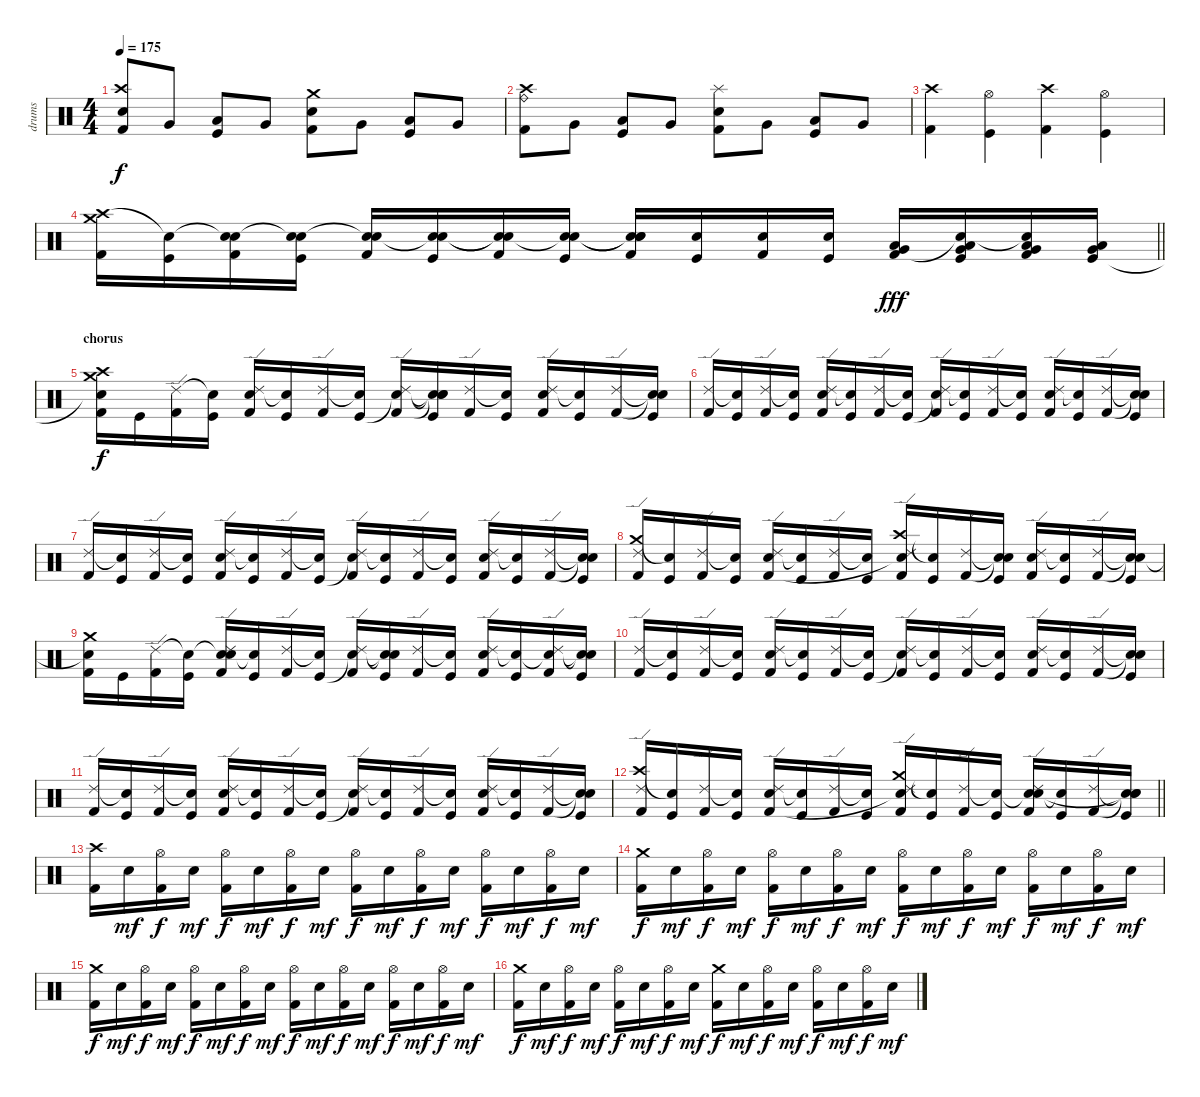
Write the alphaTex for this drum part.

\track ("drums" "drums") {instrument percussion}
\staff {score}
\articulation defaults
\ts (4 4)
\tempo 175
\clef neutral
\ks c
("Kick (hit) 2" "Crash high (hit)" "Snare (hit) 2").8{dy f} "Very Low Tom (hit)".8 ("Kick (hit)" "Low Tom (hit)").8 "Very Low Tom (hit)".8 ("Kick (hit) 2" "Snare (hit) 2" "Crash medium (hit)").8 "Very Low Tom (hit)".8 ("Kick (hit)" "Low Tom (hit)").8 "Very Low Tom (hit)".8 |
("Kick (hit) 2" "Ride (bell)" "Crash high (hit)").8 "Very Low Tom (hit)".8 ("Kick (hit)" "Low Tom (hit)").8 "Very Low Tom (hit)".8 ("Kick (hit) 2" "Snare (hit) 2" "Splash (hit)").8 "Very Low Tom (hit)".8 ("Kick (hit)" "Low Tom (hit)").8 "Very Low Tom (hit)".8 |
("Crash high (hit)" "Kick (hit) 2").4 ("Hi-Hat (open)" "Kick (hit)").4 ("Crash high (hit)" "Kick (hit) 2").4 ("Hi-Hat (open)" "Kick (hit)").4 |
\barLineRight lightlight
("Crash high (hit)" "Crash medium (hit)" "Kick (hit) 2").16 ("Snare (hit)"{t} "Kick (hit)").16 ("Snare (hit)"{t} "Electric Snare (hit)" "Kick (hit) 2").16 ("Snare (hit)"{t} "Electric Snare (hit)" "Kick (hit)").16 ("Snare (hit)"{t} "Electric Snare (hit)" "Kick (hit) 2").16 ("Snare (hit)"{t} "Electric Snare (hit)" "Kick (hit)").16 ("Snare (hit)"{t} "Snare (hit)"{t} "Kick (hit) 2").16 ("Snare (hit)"{t} "Electric Snare (hit)" "Kick (hit)").16 ("Snare (hit)"{t} "Snare (hit)"{t} "Electric Snare (hit)" "Kick (hit) 2").16 ("Electric Snare (hit)" "Kick (hit)").16 ("Electric Snare (hit)" "Kick (hit) 2").16 ("Electric Snare (hit)" "Kick (hit)").16 ("Very Low Tom (hit)" "Low Tom (hit)" "Kick (hit) 2").16{dy fff} ("Very Low Tom (hit)" "Low Tom (hit)" "Snare (hit)"{t} "Kick (hit)").16 ("Low Floor Tom (hit)" "Very Low Tom (hit)" "Snare (hit)"{t} "Kick (hit) 2").16 ("Low Floor Tom (hit)" "Very Low Tom (hit)" "Kick (hit)").16 |
\section ("" "chorus")
("Crash high (hit)" "Crash medium (hit)" "Snare (hit)"{t} "Kick (hit) 2").16{dy f} "Kick (hit)".16 ("Ride (edge) 2" "Kick (hit) 2").16 ("Snare (hit)"{t} "Kick (hit)").16 ("Ride (edge) 2" "Snare (hit) 2" "Kick (hit) 2").16 ("Snare (hit)"{t} "Kick (hit)").16 ("Ride (edge) 2" "Kick (hit) 2").16 ("Snare (hit)"{t} "Kick (hit)").16 ("Ride (edge) 2" "Snare (hit)"{t} "Kick (hit) 2").16 ("Snare (hit)"{t} "Snare (hit)"{t} "Snare (hit)"{t} "Kick (hit)").16 ("Ride (edge) 2" "Kick (hit) 2").16 ("Snare (hit)"{t} "Kick (hit)").16 ("Ride (edge) 2" "Snare (hit) 2" "Kick (hit) 2").16 ("Snare (hit)"{t} "Kick (hit)").16 ("Ride (edge) 2" "Kick (hit) 2").16 ("Snare (hit)"{t} "Snare (hit)"{t} "Kick (hit)").16 |
("Ride (edge) 2" "Kick (hit) 2").16 ("Snare (hit)"{t} "Kick (hit)").16 ("Ride (edge) 2" "Kick (hit) 2").16 ("Snare (hit)"{t} "Kick (hit)").16 ("Ride (edge) 2" "Snare (hit) 2" "Kick (hit) 2").16 ("Snare (hit)"{t} "Kick (hit)").16 ("Ride (edge) 2" "Kick (hit) 2").16 ("Snare (hit)"{t} "Kick (hit)").16 ("Ride (edge) 2" "Snare (hit)"{t} "Kick (hit) 2").16 ("Snare (hit)"{t} "Kick (hit)").16 ("Ride (edge) 2" "Kick (hit) 2").16 ("Snare (hit)"{t} "Kick (hit)").16 ("Ride (edge) 2" "Snare (hit) 2" "Kick (hit) 2").16 ("Snare (hit)"{t} "Kick (hit)").16 ("Ride (edge) 2" "Kick (hit) 2").16 ("Snare (hit)"{t} "Snare (hit)"{t} "Kick (hit)").16 |
("Ride (edge) 2" "Kick (hit) 2").16 ("Snare (hit)"{t} "Kick (hit)").16 ("Ride (edge) 2" "Kick (hit) 2").16 ("Snare (hit)"{t} "Kick (hit)").16 ("Ride (edge) 2" "Snare (hit) 2" "Kick (hit) 2").16 ("Snare (hit)"{t} "Kick (hit)").16 ("Ride (edge) 2" "Kick (hit) 2").16 ("Snare (hit)"{t} "Kick (hit)").16 ("Ride (edge) 2" "Snare (hit)"{t} "Kick (hit) 2").16 ("Snare (hit)"{t} "Kick (hit)").16 ("Ride (edge) 2" "Kick (hit) 2").16 ("Snare (hit)"{t} "Kick (hit)").16 ("Ride (edge) 2" "Snare (hit) 2" "Kick (hit) 2").16 ("Snare (hit)"{t} "Kick (hit)").16 ("Ride (edge) 2" "Kick (hit) 2").16 ("Snare (hit)"{t} "Snare (hit)"{t} "Kick (hit)").16 |
("Crash medium (hit)" "Ride (edge) 2" "Kick (hit) 2").16 ("Snare (hit)"{t} "Kick (hit)").16 ("Ride (edge) 2" "Kick (hit) 2").16 ("Snare (hit)"{t} "Kick (hit)").16 ("Ride (edge) 2" "Snare (hit) 2" "Kick (hit) 2").16 ("Snare (hit)"{t} "Kick (hit)").16 ("Ride (edge) 2" "Kick (hit) 2").16 ("Snare (hit)"{t} "Kick (hit)").16 ("Crash high (hit)" "Ride (edge) 2" "Snare (hit)"{t} "Kick (hit) 2").16 ("Snare (hit)"{t} "Kick (hit)").16 ("Ride (edge) 2" "Kick (hit) 2").16 ("Snare (hit)"{t} "Snare (hit)"{t} "Kick (hit)").16 ("Ride (edge) 2" "Snare (hit) 2" "Kick (hit) 2").16 ("Snare (hit)"{t} "Kick (hit)").16 ("Ride (edge) 2" "Kick (hit) 2").16 ("Snare (hit)"{t} "Snare (hit)"{t} "Kick (hit)").16 |
("Crash medium (hit)" "Snare (hit)"{t} "Kick (hit) 2").16 "Kick (hit)".16 ("Ride (edge) 2" "Kick (hit) 2").16 ("Snare (hit)"{t} "Kick (hit)").16 ("Snare (hit)"{t} "Ride (edge) 2" "Snare (hit) 2" "Kick (hit) 2").16 ("Snare (hit)"{t} "Kick (hit)").16 ("Ride (edge) 2" "Kick (hit) 2").16 ("Snare (hit)"{t} "Kick (hit)").16 ("Ride (edge) 2" "Snare (hit)"{t} "Kick (hit) 2").16 ("Snare (hit)"{t} "Snare (hit)"{t} "Kick (hit)").16 ("Ride (edge) 2" "Kick (hit) 2").16 ("Snare (hit)"{t} "Kick (hit)").16 ("Ride (edge) 2" "Snare (hit) 2" "Kick (hit) 2").16 ("Snare (hit)"{t} "Kick (hit)").16 ("Snare (hit)"{t} "Ride (edge) 2" "Kick (hit) 2").16 ("Snare (hit)"{t} "Snare (hit)"{t} "Kick (hit)").16 |
("Ride (edge) 2" "Kick (hit) 2").16 ("Snare (hit)"{t} "Kick (hit)").16 ("Ride (edge) 2" "Kick (hit) 2").16 ("Snare (hit)"{t} "Kick (hit)").16 ("Ride (edge) 2" "Snare (hit) 2" "Kick (hit) 2").16 ("Snare (hit)"{t} "Kick (hit)").16 ("Ride (edge) 2" "Kick (hit) 2").16 ("Snare (hit)"{t} "Kick (hit)").16 ("Ride (edge) 2" "Snare (hit)"{t} "Kick (hit) 2").16 ("Snare (hit)"{t} "Kick (hit)").16 ("Ride (edge) 2" "Kick (hit) 2").16 ("Snare (hit)"{t} "Kick (hit)").16 ("Ride (edge) 2" "Snare (hit) 2" "Kick (hit) 2").16 ("Snare (hit)"{t} "Kick (hit)").16 ("Ride (edge) 2" "Kick (hit) 2").16 ("Snare (hit)"{t} "Snare (hit)"{t} "Kick (hit)").16 |
("Ride (edge) 2" "Kick (hit) 2").16 ("Snare (hit)"{t} "Kick (hit)").16 ("Ride (edge) 2" "Kick (hit) 2").16 ("Snare (hit)"{t} "Kick (hit)").16 ("Ride (edge) 2" "Snare (hit) 2" "Kick (hit) 2").16 ("Snare (hit)"{t} "Kick (hit)").16 ("Ride (edge) 2" "Kick (hit) 2").16 ("Snare (hit)"{t} "Kick (hit)").16 ("Ride (edge) 2" "Snare (hit)"{t} "Kick (hit) 2").16 ("Snare (hit)"{t} "Kick (hit)").16 ("Ride (edge) 2" "Kick (hit) 2").16 ("Snare (hit)"{t} "Kick (hit)").16 ("Ride (edge) 2" "Snare (hit) 2" "Kick (hit) 2").16 ("Snare (hit)"{t} "Kick (hit)").16 ("Ride (edge) 2" "Kick (hit) 2").16 ("Snare (hit)"{t} "Snare (hit)"{t} "Kick (hit)").16 |
\barLineRight lightlight
("Crash high (hit)" "Ride (edge) 2" "Kick (hit) 2").16 ("Snare (hit)"{t} "Kick (hit)").16 ("Ride (edge) 2" "Kick (hit) 2").16 ("Snare (hit)"{t} "Kick (hit)").16 ("Ride (edge) 2" "Snare (hit) 2" "Kick (hit) 2").16 ("Snare (hit)"{t} "Kick (hit)").16 ("Ride (edge) 2" "Kick (hit) 2").16 ("Snare (hit)"{t} "Kick (hit)").16 ("Crash medium (hit)" "Ride (edge) 2" "Snare (hit)"{t} "Kick (hit) 2").16 ("Snare (hit)"{t} "Kick (hit)").16 ("Ride (edge) 2" "Kick (hit) 2").16 ("Snare (hit)"{t} "Kick (hit)").16 ("Snare (hit)"{t} "Ride (edge) 2" "Snare (hit) 2" "Kick (hit) 2").16 ("Snare (hit)"{t} "Kick (hit)").16 ("Ride (edge) 2" "Kick (hit) 2").16 ("Snare (hit)"{t} "Snare (hit)"{t} "Snare (hit)"{t} "Kick (hit)").16 |
("Crash high (hit)" "Kick (hit) 2").16 "Electric Snare (hit)".16{dy mf} ("Hi-Hat (open)" "Kick (hit) 2").16{dy f} "Electric Snare (hit)".16{dy mf} ("Hi-Hat (open)" "Kick (hit) 2").16{dy f} "Electric Snare (hit)".16{dy mf} ("Hi-Hat (open)" "Kick (hit) 2").16{dy f} "Electric Snare (hit)".16{dy mf} ("Hi-Hat (open)" "Kick (hit) 2").16{dy f} "Electric Snare (hit)".16{dy mf} ("Hi-Hat (open)" "Kick (hit) 2").16{dy f} "Electric Snare (hit)".16{dy mf} ("Hi-Hat (open)" "Kick (hit) 2").16{dy f} "Electric Snare (hit)".16{dy mf} ("Hi-Hat (open)" "Kick (hit) 2").16{dy f} "Electric Snare (hit)".16{dy mf} |
("Crash medium (hit)" "Kick (hit) 2").16{dy f} "Electric Snare (hit)".16{dy mf} ("Hi-Hat (open)" "Kick (hit) 2").16{dy f} "Electric Snare (hit)".16{dy mf} ("Hi-Hat (open)" "Kick (hit) 2").16{dy f} "Electric Snare (hit)".16{dy mf} ("Hi-Hat (open)" "Kick (hit) 2").16{dy f} "Electric Snare (hit)".16{dy mf} ("Hi-Hat (open)" "Kick (hit) 2").16{dy f} "Electric Snare (hit)".16{dy mf} ("Hi-Hat (open)" "Kick (hit) 2").16{dy f} "Electric Snare (hit)".16{dy mf} ("Hi-Hat (open)" "Kick (hit) 2").16{dy f} "Electric Snare (hit)".16{dy mf} ("Hi-Hat (open)" "Kick (hit) 2").16{dy f} "Electric Snare (hit)".16{dy mf} |
("Crash medium (hit)" "Kick (hit) 2").16{dy f} "Electric Snare (hit)".16{dy mf} ("Hi-Hat (open)" "Kick (hit) 2").16{dy f} "Electric Snare (hit)".16{dy mf} ("Hi-Hat (open)" "Kick (hit) 2").16{dy f} "Electric Snare (hit)".16{dy mf} ("Hi-Hat (open)" "Kick (hit) 2").16{dy f} "Electric Snare (hit)".16{dy mf} ("Hi-Hat (open)" "Kick (hit) 2").16{dy f} "Electric Snare (hit)".16{dy mf} ("Hi-Hat (open)" "Kick (hit) 2").16{dy f} "Electric Snare (hit)".16{dy mf} ("Hi-Hat (open)" "Kick (hit) 2").16{dy f} "Electric Snare (hit)".16{dy mf} ("Hi-Hat (open)" "Kick (hit) 2").16{dy f} "Electric Snare (hit)".16{dy mf} |
("Crash medium (hit)" "Kick (hit) 2").16{dy f} "Electric Snare (hit)".16{dy mf} ("Hi-Hat (open)" "Kick (hit) 2").16{dy f} "Electric Snare (hit)".16{dy mf} ("Hi-Hat (open)" "Kick (hit) 2").16{dy f} "Electric Snare (hit)".16{dy mf} ("Hi-Hat (open)" "Kick (hit) 2").16{dy f} "Electric Snare (hit)".16{dy mf} ("Crash medium (hit)" "Kick (hit) 2").16{dy f} "Electric Snare (hit)".16{dy mf} ("Hi-Hat (open)" "Kick (hit) 2").16{dy f} "Electric Snare (hit)".16{dy mf} ("Hi-Hat (open)" "Kick (hit) 2").16{dy f} "Electric Snare (hit)".16{dy mf} ("Hi-Hat (open)" "Kick (hit) 2").16{dy f} "Electric Snare (hit)".16{dy mf}
